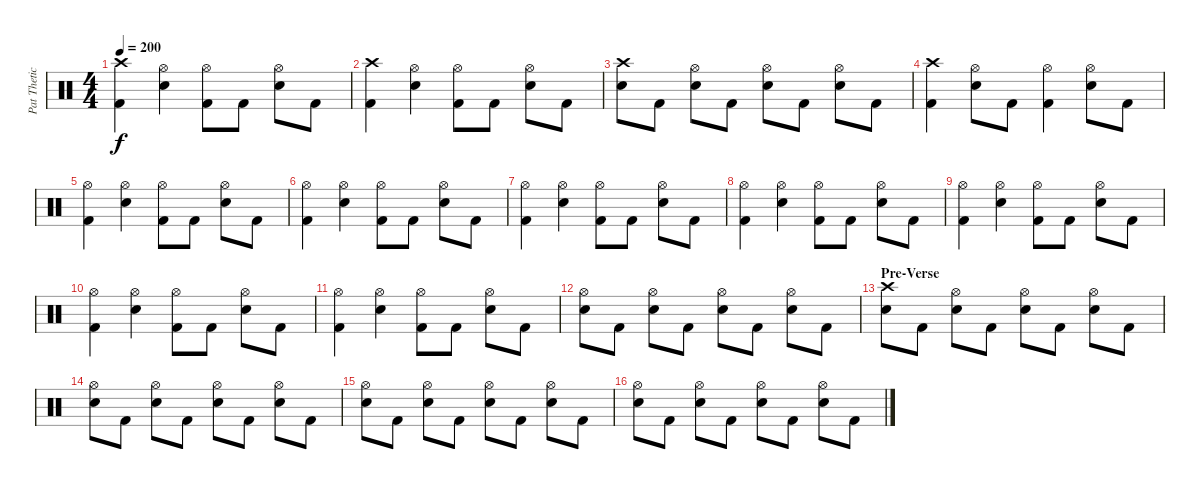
\track ("Pat Thetic (Drums)" "Pat Thetic") {instrument percussion}
\staff {score}
\articulation defaults
\ts (4 4)
\tempo 200
\clef neutral
\ks c
("Crash high (hit)" "Kick (hit) 2").4{dy f} ("Hi-Hat (open)" "Electric Snare (hit)").4 ("Hi-Hat (open)" "Kick (hit) 2").8 "Kick (hit) 2".8 ("Hi-Hat (open)" "Electric Snare (hit)").8 "Kick (hit) 2".8 |
("Crash high (hit)" "Kick (hit) 2").4 ("Hi-Hat (open)" "Electric Snare (hit)").4 ("Hi-Hat (open)" "Kick (hit) 2").8 "Kick (hit) 2".8 ("Hi-Hat (open)" "Electric Snare (hit)").8 "Kick (hit) 2".8 |
("Crash high (hit)" "Electric Snare (hit)").8 "Kick (hit) 2".8 ("Hi-Hat (open)" "Electric Snare (hit)").8 "Kick (hit) 2".8 ("Hi-Hat (open)" "Electric Snare (hit)").8 "Kick (hit) 2".8 ("Hi-Hat (open)" "Electric Snare (hit)").8 "Kick (hit) 2".8 |
("Crash high (hit)" "Kick (hit) 2").4 ("Hi-Hat (open)" "Electric Snare (hit)").8 "Kick (hit) 2".8 ("Hi-Hat (open)" "Kick (hit) 2").4 ("Hi-Hat (open)" "Electric Snare (hit)").8 "Kick (hit) 2".8 |
("Hi-Hat (open)" "Kick (hit) 2").4 ("Hi-Hat (open)" "Electric Snare (hit)").4 ("Hi-Hat (open)" "Kick (hit) 2").8 "Kick (hit) 2".8 ("Hi-Hat (open)" "Electric Snare (hit)").8 "Kick (hit) 2".8 |
("Hi-Hat (open)" "Kick (hit) 2").4 ("Hi-Hat (open)" "Electric Snare (hit)").4 ("Hi-Hat (open)" "Kick (hit) 2").8 "Kick (hit) 2".8 ("Hi-Hat (open)" "Electric Snare (hit)").8 "Kick (hit) 2".8 |
("Hi-Hat (open)" "Kick (hit) 2").4 ("Hi-Hat (open)" "Electric Snare (hit)").4 ("Hi-Hat (open)" "Kick (hit) 2").8 "Kick (hit) 2".8 ("Hi-Hat (open)" "Electric Snare (hit)").8 "Kick (hit) 2".8 |
("Hi-Hat (open)" "Kick (hit) 2").4 ("Hi-Hat (open)" "Electric Snare (hit)").4 ("Hi-Hat (open)" "Kick (hit) 2").8 "Kick (hit) 2".8 ("Hi-Hat (open)" "Electric Snare (hit)").8 "Kick (hit) 2".8 |
("Hi-Hat (open)" "Kick (hit) 2").4 ("Hi-Hat (open)" "Electric Snare (hit)").4 ("Hi-Hat (open)" "Kick (hit) 2").8 "Kick (hit) 2".8 ("Hi-Hat (open)" "Electric Snare (hit)").8 "Kick (hit) 2".8 |
("Hi-Hat (open)" "Kick (hit) 2").4 ("Hi-Hat (open)" "Electric Snare (hit)").4 ("Hi-Hat (open)" "Kick (hit) 2").8 "Kick (hit) 2".8 ("Hi-Hat (open)" "Electric Snare (hit)").8 "Kick (hit) 2".8 |
("Hi-Hat (open)" "Kick (hit) 2").4 ("Hi-Hat (open)" "Electric Snare (hit)").4 ("Hi-Hat (open)" "Kick (hit) 2").8 "Kick (hit) 2".8 ("Hi-Hat (open)" "Electric Snare (hit)").8 "Kick (hit) 2".8 |
("Hi-Hat (open)" "Electric Snare (hit)").8 "Kick (hit) 2".8 ("Hi-Hat (open)" "Electric Snare (hit)").8 "Kick (hit) 2".8 ("Hi-Hat (open)" "Electric Snare (hit)").8 "Kick (hit) 2".8 ("Hi-Hat (open)" "Electric Snare (hit)").8 "Kick (hit) 2".8 |
\section ("" "Pre-Verse")
("Crash high (hit)" "Electric Snare (hit)").8 "Kick (hit) 2".8 ("Hi-Hat (open)" "Electric Snare (hit)").8 "Kick (hit) 2".8 ("Hi-Hat (open)" "Electric Snare (hit)").8 "Kick (hit) 2".8 ("Hi-Hat (open)" "Electric Snare (hit)").8 "Kick (hit) 2".8 |
("Hi-Hat (open)" "Electric Snare (hit)").8 "Kick (hit) 2".8 ("Hi-Hat (open)" "Electric Snare (hit)").8 "Kick (hit) 2".8 ("Hi-Hat (open)" "Electric Snare (hit)").8 "Kick (hit) 2".8 ("Hi-Hat (open)" "Electric Snare (hit)").8 "Kick (hit) 2".8 |
("Hi-Hat (open)" "Electric Snare (hit)").8 "Kick (hit) 2".8 ("Hi-Hat (open)" "Electric Snare (hit)").8 "Kick (hit) 2".8 ("Hi-Hat (open)" "Electric Snare (hit)").8 "Kick (hit) 2".8 ("Hi-Hat (open)" "Electric Snare (hit)").8 "Kick (hit) 2".8 |
("Hi-Hat (open)" "Electric Snare (hit)").8 "Kick (hit) 2".8 ("Hi-Hat (open)" "Electric Snare (hit)").8 "Kick (hit) 2".8 ("Hi-Hat (open)" "Electric Snare (hit)").8 "Kick (hit) 2".8 ("Hi-Hat (open)" "Electric Snare (hit)").8 "Kick (hit) 2".8
